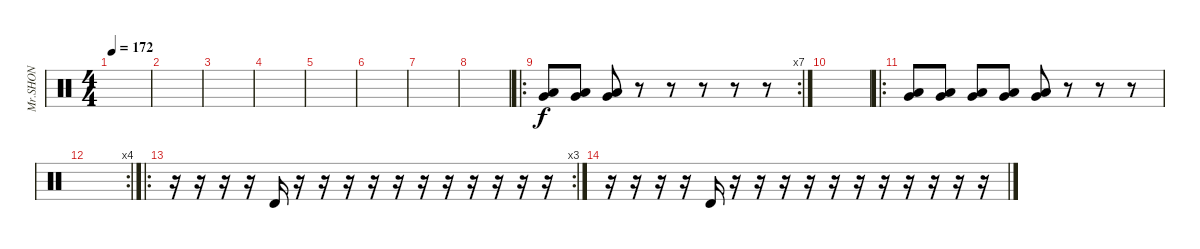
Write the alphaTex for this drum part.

\track ("Mr.SHON" "Mr.SHON") {instrument percussion}
\staff {score}
\articulation defaults
\ts (4 4)
\tempo 172
\clef neutral
\ks c
|
|
|
|
|
|
|
|
\ro
\rc 7
("Very Low Tom (hit)" "Low Floor Tom (hit)").8 ("Very Low Tom (hit)" "Low Floor Tom (hit)").8 ("Very Low Tom (hit)" "Low Floor Tom (hit)").8 r.8 r.8 r.8 r.8 r.8 |
|
\ro
("Very Low Tom (hit)" "Low Floor Tom (hit)").8 ("Very Low Tom (hit)" "Low Floor Tom (hit)").8 ("Very Low Tom (hit)" "Low Floor Tom (hit)").8 ("Very Low Tom (hit)" "Low Floor Tom (hit)").8 ("Very Low Tom (hit)" "Low Floor Tom (hit)").8 r.8 r.8 r.8 |
\rc 4
|
\ro
\rc 3
r.16 r.16 r.16 r.16 "Timbale high (hit)".16 r.16 r.16 r.16 r.16 r.16 r.16 r.16 r.16 r.16 r.16 r.16 |
r.16 r.16 r.16 r.16 "Timbale high (hit)".16 r.16 r.16 r.16 r.16 r.16 r.16 r.16 r.16 r.16 r.16 r.16
